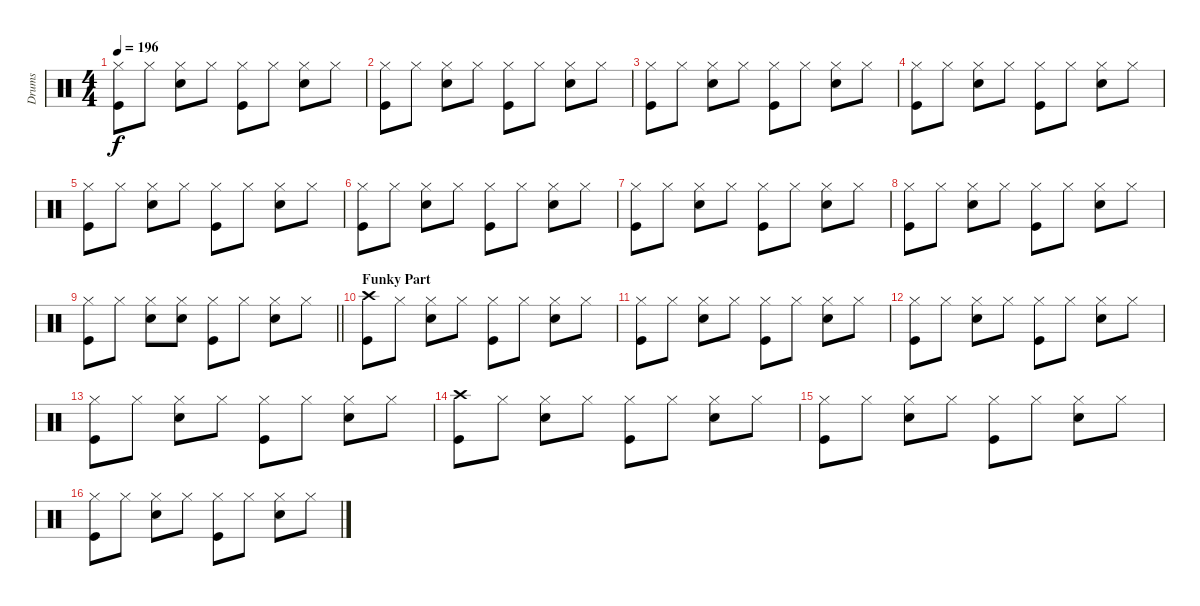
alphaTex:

\track ("Drums" "Drums") {instrument percussion}
\staff {score}
\articulation defaults
\ts (4 4)
\tempo 196
\clef neutral
\ks c
("Hi-Hat (closed)" "Kick (hit)").8{dy f} "Hi-Hat (closed)".8 ("Hi-Hat (closed)" "Electric Snare (hit)").8 "Hi-Hat (closed)".8 ("Hi-Hat (closed)" "Kick (hit)").8 "Hi-Hat (closed)".8 ("Hi-Hat (closed)" "Electric Snare (hit)").8 "Hi-Hat (closed)".8 |
("Hi-Hat (closed)" "Kick (hit)").8 "Hi-Hat (closed)".8 ("Hi-Hat (closed)" "Electric Snare (hit)").8 "Hi-Hat (closed)".8 ("Hi-Hat (closed)" "Kick (hit)").8 "Hi-Hat (closed)".8 ("Hi-Hat (closed)" "Electric Snare (hit)").8 "Hi-Hat (closed)".8 |
("Hi-Hat (closed)" "Kick (hit)").8 "Hi-Hat (closed)".8 ("Hi-Hat (closed)" "Electric Snare (hit)").8 "Hi-Hat (closed)".8 ("Hi-Hat (closed)" "Kick (hit)").8 "Hi-Hat (closed)".8 ("Hi-Hat (closed)" "Electric Snare (hit)").8 "Hi-Hat (closed)".8 |
("Hi-Hat (closed)" "Kick (hit)").8 "Hi-Hat (closed)".8 ("Hi-Hat (closed)" "Electric Snare (hit)").8 "Hi-Hat (closed)".8 ("Hi-Hat (closed)" "Kick (hit)").8 "Hi-Hat (closed)".8 ("Hi-Hat (closed)" "Electric Snare (hit)").8 "Hi-Hat (closed)".8 |
("Hi-Hat (closed)" "Kick (hit)").8 "Hi-Hat (closed)".8 ("Hi-Hat (closed)" "Electric Snare (hit)").8 "Hi-Hat (closed)".8 ("Hi-Hat (closed)" "Kick (hit)").8 "Hi-Hat (closed)".8 ("Hi-Hat (closed)" "Electric Snare (hit)").8 "Hi-Hat (closed)".8 |
("Hi-Hat (closed)" "Kick (hit)").8 "Hi-Hat (closed)".8 ("Hi-Hat (closed)" "Electric Snare (hit)").8 "Hi-Hat (closed)".8 ("Hi-Hat (closed)" "Kick (hit)").8 "Hi-Hat (closed)".8 ("Hi-Hat (closed)" "Electric Snare (hit)").8 "Hi-Hat (closed)".8 |
("Hi-Hat (closed)" "Kick (hit)").8 "Hi-Hat (closed)".8 ("Hi-Hat (closed)" "Electric Snare (hit)").8 "Hi-Hat (closed)".8 ("Hi-Hat (closed)" "Kick (hit)").8 "Hi-Hat (closed)".8 ("Hi-Hat (closed)" "Electric Snare (hit)").8 "Hi-Hat (closed)".8 |
("Hi-Hat (closed)" "Kick (hit)").8 "Hi-Hat (closed)".8 ("Hi-Hat (closed)" "Electric Snare (hit)").8 "Hi-Hat (closed)".8 ("Hi-Hat (closed)" "Kick (hit)").8 "Hi-Hat (closed)".8 ("Hi-Hat (closed)" "Electric Snare (hit)").8 "Hi-Hat (closed)".8 |
\barLineRight lightlight
("Hi-Hat (closed)" "Kick (hit)").8 "Hi-Hat (closed)".8 ("Hi-Hat (closed)" "Electric Snare (hit)").8 ("Hi-Hat (closed)" "Electric Snare (hit)").8 ("Hi-Hat (closed)" "Kick (hit)").8 "Hi-Hat (closed)".8 ("Hi-Hat (closed)" "Electric Snare (hit)").8 "Hi-Hat (closed)".8 |
\section ("" "Funky Part")
("Crash high (hit)" "Kick (hit)").8 "Hi-Hat (closed)".8 ("Hi-Hat (closed)" "Electric Snare (hit)").8 "Hi-Hat (closed)".8 ("Hi-Hat (closed)" "Kick (hit)").8 "Hi-Hat (closed)".8 ("Hi-Hat (closed)" "Electric Snare (hit)").8 "Hi-Hat (closed)".8 |
("Hi-Hat (closed)" "Kick (hit)").8 "Hi-Hat (closed)".8 ("Hi-Hat (closed)" "Electric Snare (hit)").8 "Hi-Hat (closed)".8 ("Hi-Hat (closed)" "Kick (hit)").8 "Hi-Hat (closed)".8 ("Hi-Hat (closed)" "Electric Snare (hit)").8 "Hi-Hat (closed)".8 |
("Hi-Hat (closed)" "Kick (hit)").8 "Hi-Hat (closed)".8 ("Hi-Hat (closed)" "Electric Snare (hit)").8 "Hi-Hat (closed)".8 ("Hi-Hat (closed)" "Kick (hit)").8 "Hi-Hat (closed)".8 ("Hi-Hat (closed)" "Electric Snare (hit)").8 "Hi-Hat (closed)".8 |
("Hi-Hat (closed)" "Kick (hit)").8 "Hi-Hat (closed)".8 ("Hi-Hat (closed)" "Electric Snare (hit)").8 "Hi-Hat (closed)".8 ("Hi-Hat (closed)" "Kick (hit)").8 "Hi-Hat (closed)".8 ("Hi-Hat (closed)" "Electric Snare (hit)").8 "Hi-Hat (closed)".8 |
("Crash high (hit)" "Kick (hit)").8 "Hi-Hat (closed)".8 ("Hi-Hat (closed)" "Electric Snare (hit)").8 "Hi-Hat (closed)".8 ("Hi-Hat (closed)" "Kick (hit)").8 "Hi-Hat (closed)".8 ("Hi-Hat (closed)" "Electric Snare (hit)").8 "Hi-Hat (closed)".8 |
("Hi-Hat (closed)" "Kick (hit)").8 "Hi-Hat (closed)".8 ("Hi-Hat (closed)" "Electric Snare (hit)").8 "Hi-Hat (closed)".8 ("Hi-Hat (closed)" "Kick (hit)").8 "Hi-Hat (closed)".8 ("Hi-Hat (closed)" "Electric Snare (hit)").8 "Hi-Hat (closed)".8 |
("Hi-Hat (closed)" "Kick (hit)").8 "Hi-Hat (closed)".8 ("Hi-Hat (closed)" "Electric Snare (hit)").8 "Hi-Hat (closed)".8 ("Hi-Hat (closed)" "Kick (hit)").8 "Hi-Hat (closed)".8 ("Hi-Hat (closed)" "Electric Snare (hit)").8 "Hi-Hat (closed)".8
